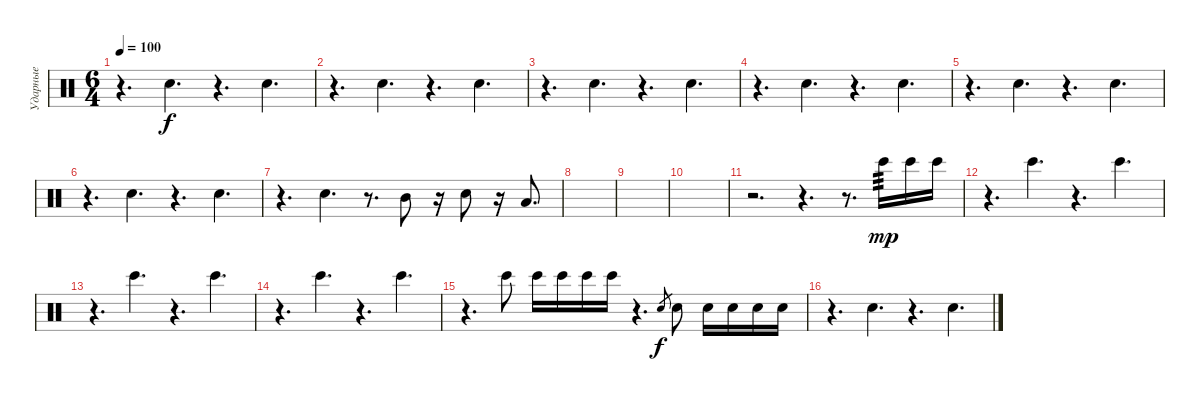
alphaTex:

\track ("Ударные" "Ударные") {instrument percussion}
\staff {score}
\articulation defaults
\ts (6 4)
\tempo 100
\clef neutral
\ks c
r.4{d dy f} "Electric Snare (hit)".4{d} r.4{d} "Electric Snare (hit)".4{d} |
r.4{d} "Electric Snare (hit)".4{d} r.4{d} "Electric Snare (hit)".4{d} |
r.4{d} "Electric Snare (hit)".4{d} r.4{d} "Electric Snare (hit)".4{d} |
r.4{d} "Electric Snare (hit)".4{d} r.4{d} "Electric Snare (hit)".4{d} |
r.4{d} "Electric Snare (hit)".4{d} r.4{d} "Electric Snare (hit)".4{d} |
r.4{d} "Electric Snare (hit)".4{d} r.4{d} "Electric Snare (hit)".4{d} |
r.4{d} "Electric Snare (hit)".4{d} r.8{d} "Mid Tom (hit)".8 r.16 "Electric Snare (hit)".8 r.16 "Low Tom (hit)".8{d} |
|
|
|
r.2{d} r.4{d} r.8{d} "Bongo High (hit)".16{tp 3 dy mp} "Bongo High (hit)".16 "Bongo High (hit)".16 |
r.4{d} "Bongo High (hit)".4{d} r.4{d} "Bongo High (hit)".4{d} |
r.4{d} "Bongo High (hit)".4{d} r.4{d} "Bongo High (hit)".4{d} |
r.4{d} "Bongo High (hit)".4{d} r.4{d} "Bongo High (hit)".4{d} |
r.4{d} "Bongo High (hit)".8 "Bongo High (hit)".16 "Bongo High (hit)".16 "Bongo High (hit)".16 "Bongo High (hit)".16 r.4{d} "Electric Snare (hit)".8{gr dy f} "Electric Snare (hit)".8 "Electric Snare (hit)".16 "Electric Snare (hit)".16 "Electric Snare (hit)".16 "Electric Snare (hit)".16 |
r.4{d} "Electric Snare (hit)".4{d} r.4{d} "Electric Snare (hit)".4{d}
